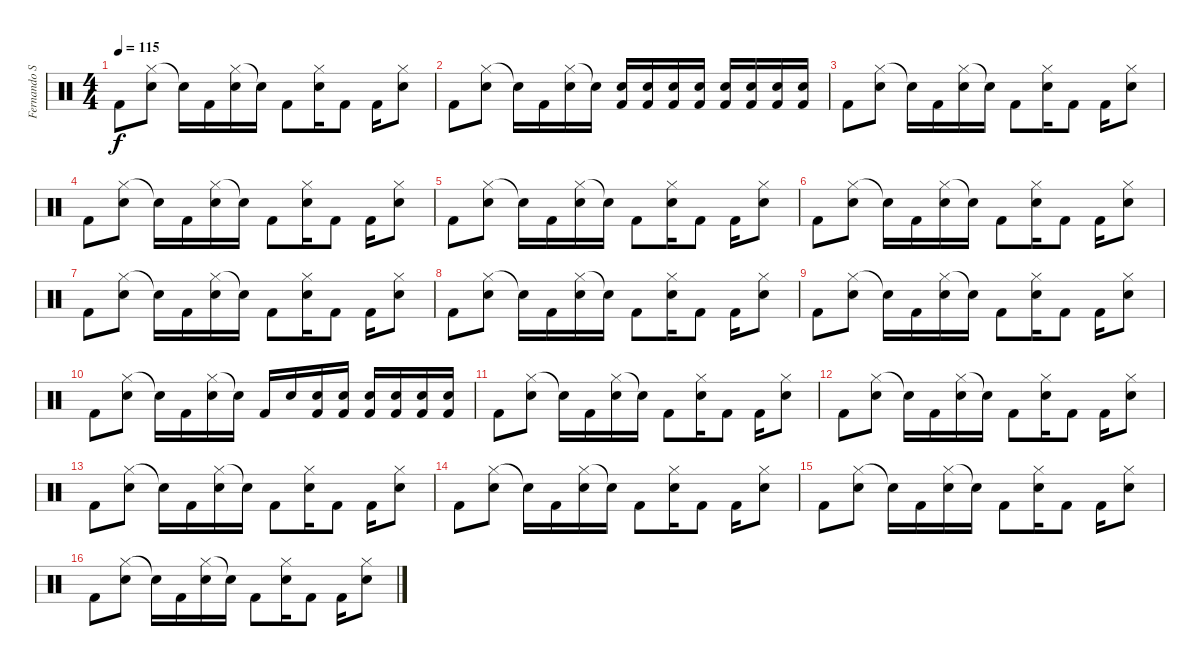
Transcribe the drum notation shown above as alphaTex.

\track ("Fernando Scarcella" "Fernando S") {instrument percussion}
\staff {score}
\articulation defaults
\ts (4 4)
\tempo 115
\clef neutral
\ks c "Kick (hit) 2".8{dy f}
("Hi-Hat (closed)" "Snare (hit) 2").8 "Snare (hit)"{t}.16 "Kick (hit) 2".16 ("Hi-Hat (closed)" "Snare (hit) 2").16 "Snare (hit)"{t}.16 "Kick (hit) 2".8 ("Hi-Hat (closed)" "Snare (hit) 2").16 "Kick (hit) 2".8 "Kick (hit) 2".16 ("Hi-Hat (closed)" "Snare (hit) 2").8 |
"Kick (hit) 2".8 ("Hi-Hat (closed)" "Snare (hit) 2").8 "Snare (hit)"{t}.16 "Kick (hit) 2".16 ("Hi-Hat (closed)" "Snare (hit) 2").16 "Snare (hit)"{t}.16 ("Snare (hit) 2" "Kick (hit) 2").16 ("Snare (hit) 2" "Kick (hit) 2").16 ("Snare (hit) 2" "Kick (hit) 2").16 ("Snare (hit) 2" "Kick (hit) 2").16 ("Snare (hit) 2" "Kick (hit) 2").16 ("Snare (hit) 2" "Kick (hit) 2").16 ("Snare (hit) 2" "Kick (hit) 2").16 ("Snare (hit) 2" "Kick (hit) 2").16 |
"Kick (hit) 2".8 ("Hi-Hat (closed)" "Snare (hit) 2").8 "Snare (hit)"{t}.16 "Kick (hit) 2".16 ("Hi-Hat (closed)" "Snare (hit) 2").16 "Snare (hit)"{t}.16 "Kick (hit) 2".8 ("Hi-Hat (closed)" "Snare (hit) 2").16 "Kick (hit) 2".8 "Kick (hit) 2".16 ("Hi-Hat (closed)" "Snare (hit) 2").8 |
"Kick (hit) 2".8 ("Hi-Hat (closed)" "Snare (hit) 2").8 "Snare (hit)"{t}.16 "Kick (hit) 2".16 ("Hi-Hat (closed)" "Snare (hit) 2").16 "Snare (hit)"{t}.16 "Kick (hit) 2".8 ("Hi-Hat (closed)" "Snare (hit) 2").16 "Kick (hit) 2".8 "Kick (hit) 2".16 ("Hi-Hat (closed)" "Snare (hit) 2").8 |
"Kick (hit) 2".8 ("Hi-Hat (closed)" "Snare (hit) 2").8 "Snare (hit)"{t}.16 "Kick (hit) 2".16 ("Hi-Hat (closed)" "Snare (hit) 2").16 "Snare (hit)"{t}.16 "Kick (hit) 2".8 ("Hi-Hat (closed)" "Snare (hit) 2").16 "Kick (hit) 2".8 "Kick (hit) 2".16 ("Hi-Hat (closed)" "Snare (hit) 2").8 |
"Kick (hit) 2".8 ("Hi-Hat (closed)" "Snare (hit) 2").8 "Snare (hit)"{t}.16 "Kick (hit) 2".16 ("Hi-Hat (closed)" "Snare (hit) 2").16 "Snare (hit)"{t}.16 "Kick (hit) 2".8 ("Hi-Hat (closed)" "Snare (hit) 2").16 "Kick (hit) 2".8 "Kick (hit) 2".16 ("Hi-Hat (closed)" "Snare (hit) 2").8 |
"Kick (hit) 2".8 ("Hi-Hat (closed)" "Snare (hit) 2").8 "Snare (hit)"{t}.16 "Kick (hit) 2".16 ("Hi-Hat (closed)" "Snare (hit) 2").16 "Snare (hit)"{t}.16 "Kick (hit) 2".8 ("Hi-Hat (closed)" "Snare (hit) 2").16 "Kick (hit) 2".8 "Kick (hit) 2".16 ("Hi-Hat (closed)" "Snare (hit) 2").8 |
"Kick (hit) 2".8 ("Hi-Hat (closed)" "Snare (hit) 2").8 "Snare (hit)"{t}.16 "Kick (hit) 2".16 ("Hi-Hat (closed)" "Snare (hit) 2").16 "Snare (hit)"{t}.16 "Kick (hit) 2".8 ("Hi-Hat (closed)" "Snare (hit) 2").16 "Kick (hit) 2".8 "Kick (hit) 2".16 ("Hi-Hat (closed)" "Snare (hit) 2").8 |
"Kick (hit) 2".8 ("Hi-Hat (closed)" "Snare (hit) 2").8 "Snare (hit)"{t}.16 "Kick (hit) 2".16 ("Hi-Hat (closed)" "Snare (hit) 2").16 "Snare (hit)"{t}.16 "Kick (hit) 2".8 ("Hi-Hat (closed)" "Snare (hit) 2").16 "Kick (hit) 2".8 "Kick (hit) 2".16 ("Hi-Hat (closed)" "Snare (hit) 2").8 |
"Kick (hit) 2".8 ("Hi-Hat (closed)" "Snare (hit) 2").8 "Snare (hit)"{t}.16 "Kick (hit) 2".16 ("Hi-Hat (closed)" "Snare (hit) 2").16 "Snare (hit)"{t}.16 "Kick (hit) 2".16 "Snare (hit) 2".16 ("Snare (hit) 2" "Kick (hit) 2").16 ("Snare (hit) 2" "Kick (hit) 2").16 ("Snare (hit) 2" "Kick (hit) 2").16 ("Snare (hit) 2" "Kick (hit) 2").16 ("Snare (hit) 2" "Kick (hit) 2").16 ("Snare (hit) 2" "Kick (hit) 2").16 |
"Kick (hit) 2".8 ("Hi-Hat (closed)" "Snare (hit) 2").8 "Snare (hit)"{t}.16 "Kick (hit) 2".16 ("Hi-Hat (closed)" "Snare (hit) 2").16 "Snare (hit)"{t}.16 "Kick (hit) 2".8 ("Hi-Hat (closed)" "Snare (hit) 2").16 "Kick (hit) 2".8 "Kick (hit) 2".16 ("Hi-Hat (closed)" "Snare (hit) 2").8 |
"Kick (hit) 2".8 ("Hi-Hat (closed)" "Snare (hit) 2").8 "Snare (hit)"{t}.16 "Kick (hit) 2".16 ("Hi-Hat (closed)" "Snare (hit) 2").16 "Snare (hit)"{t}.16 "Kick (hit) 2".8 ("Hi-Hat (closed)" "Snare (hit) 2").16 "Kick (hit) 2".8 "Kick (hit) 2".16 ("Hi-Hat (closed)" "Snare (hit) 2").8 |
"Kick (hit) 2".8 ("Hi-Hat (closed)" "Snare (hit) 2").8 "Snare (hit)"{t}.16 "Kick (hit) 2".16 ("Hi-Hat (closed)" "Snare (hit) 2").16 "Snare (hit)"{t}.16 "Kick (hit) 2".8 ("Hi-Hat (closed)" "Snare (hit) 2").16 "Kick (hit) 2".8 "Kick (hit) 2".16 ("Hi-Hat (closed)" "Snare (hit) 2").8 |
"Kick (hit) 2".8 ("Hi-Hat (closed)" "Snare (hit) 2").8 "Snare (hit)"{t}.16 "Kick (hit) 2".16 ("Hi-Hat (closed)" "Snare (hit) 2").16 "Snare (hit)"{t}.16 "Kick (hit) 2".8 ("Hi-Hat (closed)" "Snare (hit) 2").16 "Kick (hit) 2".8 "Kick (hit) 2".16 ("Hi-Hat (closed)" "Snare (hit) 2").8 |
"Kick (hit) 2".8 ("Hi-Hat (closed)" "Snare (hit) 2").8 "Snare (hit)"{t}.16 "Kick (hit) 2".16 ("Hi-Hat (closed)" "Snare (hit) 2").16 "Snare (hit)"{t}.16 "Kick (hit) 2".8 ("Hi-Hat (closed)" "Snare (hit) 2").16 "Kick (hit) 2".8 "Kick (hit) 2".16 ("Hi-Hat (closed)" "Snare (hit) 2").8 |
"Kick (hit) 2".8 ("Hi-Hat (closed)" "Snare (hit) 2").8 "Snare (hit)"{t}.16 "Kick (hit) 2".16 ("Hi-Hat (closed)" "Snare (hit) 2").16 "Snare (hit)"{t}.16 "Kick (hit) 2".8 ("Hi-Hat (closed)" "Snare (hit) 2").16 "Kick (hit) 2".8 "Kick (hit) 2".16 ("Hi-Hat (closed)" "Snare (hit) 2").8
